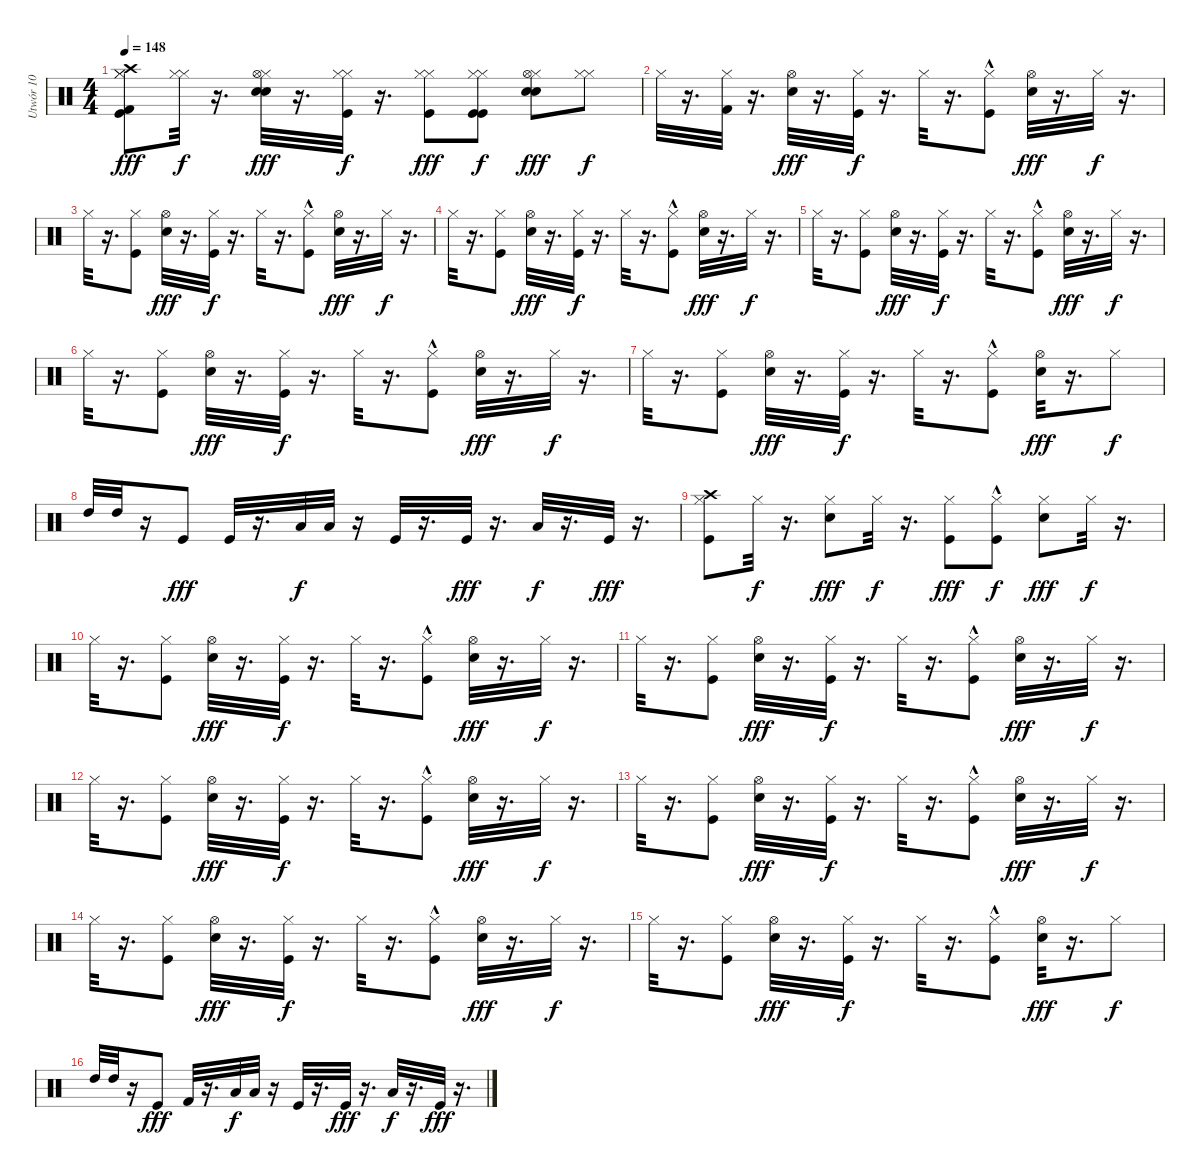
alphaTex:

\track ("Utwór 10" "Utwór 10") {instrument percussion}
\staff {score}
\articulation defaults
\ts (4 4)
\tempo 148
\clef neutral
\ks c
("Crash high (hit)" "Hi-Hat (closed)" "Kick (hit)" "Hi-Hat (closed)" "Kick (hit) 2").8{dy fff} ("Hi-Hat (closed)" "Hi-Hat (closed)").32{dy f} r.16{d} ("Hi-Hat (closed)" "Electric Snare (hit)" "Hi-Hat (open)" "Electric Snare (hit)").32{dy fff} r.16{d} ("Hi-Hat (closed)" "Hi-Hat (closed)" "Kick (hit)").32{dy f} r.16{d} ("Hi-Hat (closed)" "Hi-Hat (closed)" "Kick (hit)").8{dy fff} ("Hi-Hat (closed)" "Kick (hit)" "Hi-Hat (closed)" "Kick (hit)").8{dy f} ("Hi-Hat (closed)" "Electric Snare (hit)" "Hi-Hat (open)" "Electric Snare (hit)").8{dy fff} ("Hi-Hat (closed)" "Hi-Hat (closed)").8{dy f} |
"Hi-Hat (closed)".32 r.16{d} ("Hi-Hat (closed)" "Kick (hit) 2").32 r.16{d} ("Hi-Hat (open)" "Electric Snare (hit)").32{dy fff} r.16{d} ("Hi-Hat (closed)" "Kick (hit)").32{dy f} r.16{d} "Hi-Hat (closed)".32 r.16{d} ("Hi-Hat (closed)" "Kick (hit)"{hac}).8 ("Hi-Hat (open)" "Electric Snare (hit)").32{dy fff} r.16{d} "Hi-Hat (closed)".32{dy f} r.16{d} |
"Hi-Hat (closed)".32 r.16{d} ("Hi-Hat (closed)" "Kick (hit)").8 ("Hi-Hat (open)" "Electric Snare (hit)").32{dy fff} r.16{d} ("Hi-Hat (closed)" "Kick (hit)").32{dy f} r.16{d} "Hi-Hat (closed)".32 r.16{d} ("Hi-Hat (closed)" "Kick (hit)"{hac}).8 ("Hi-Hat (open)" "Electric Snare (hit)").32{dy fff} r.16{d} "Hi-Hat (closed)".32{dy f} r.16{d} |
"Hi-Hat (closed)".32 r.16{d} ("Hi-Hat (closed)" "Kick (hit)").8 ("Hi-Hat (open)" "Electric Snare (hit)").32{dy fff} r.16{d} ("Hi-Hat (closed)" "Kick (hit)").32{dy f} r.16{d} "Hi-Hat (closed)".32 r.16{d} ("Hi-Hat (closed)" "Kick (hit)"{hac}).8 ("Hi-Hat (open)" "Electric Snare (hit)").32{dy fff} r.16{d} "Hi-Hat (closed)".32{dy f} r.16{d} |
"Hi-Hat (closed)".32 r.16{d} ("Hi-Hat (closed)" "Kick (hit)").8 ("Hi-Hat (open)" "Electric Snare (hit)").32{dy fff} r.16{d} ("Hi-Hat (closed)" "Kick (hit)").32{dy f} r.16{d} "Hi-Hat (closed)".32 r.16{d} ("Hi-Hat (closed)" "Kick (hit)"{hac}).8 ("Hi-Hat (open)" "Electric Snare (hit)").32{dy fff} r.16{d} "Hi-Hat (closed)".32{dy f} r.16{d} |
"Hi-Hat (closed)".32 r.16{d} ("Hi-Hat (closed)" "Kick (hit)").8 ("Hi-Hat (open)" "Electric Snare (hit)").32{dy fff} r.16{d} ("Hi-Hat (closed)" "Kick (hit)").32{dy f} r.16{d} "Hi-Hat (closed)".32 r.16{d} ("Hi-Hat (closed)" "Kick (hit)"{hac}).8 ("Hi-Hat (open)" "Electric Snare (hit)").32{dy fff} r.16{d} "Hi-Hat (closed)".32{dy f} r.16{d} |
"Hi-Hat (closed)".32 r.16{d} ("Hi-Hat (closed)" "Kick (hit)").8 ("Hi-Hat (open)" "Electric Snare (hit)").32{dy fff} r.16{d} ("Hi-Hat (closed)" "Kick (hit)").32{dy f} r.16{d} "Hi-Hat (closed)".32 r.16{d} ("Hi-Hat (closed)" "Kick (hit)"{hac}).8 ("Hi-Hat (open)" "Electric Snare (hit)").32{dy fff} r.16{d} "Hi-Hat (closed)".8{dy f} |
"High Tom (hit)".32 "High Tom (hit)".32 r.16 "Kick (hit)".8{dy fff} "Kick (hit)".32 r.16{d} "Low Tom (hit)".32{dy f} "Low Tom (hit)".32 r.16 "Kick (hit)".32 r.16{d} "Kick (hit)".32{dy fff} r.16{d} "Low Floor Tom (hit)".32{dy f} r.16{d} "Kick (hit)".32{dy fff} r.16{d} |
("Crash high (hit)" "Hi-Hat (closed)" "Kick (hit)").8 "Hi-Hat (closed)".32{dy f} r.16{d} ("Hi-Hat (closed)" "Electric Snare (hit)").8{dy fff} "Hi-Hat (closed)".32{dy f} r.16{d} ("Hi-Hat (closed)" "Kick (hit)").8{dy fff} ("Hi-Hat (closed)" "Kick (hit)"{hac}).8{dy f} ("Hi-Hat (closed)" "Electric Snare (hit)").8{dy fff} "Hi-Hat (closed)".32{dy f} r.16{d} |
"Hi-Hat (closed)".32 r.16{d} ("Hi-Hat (closed)" "Kick (hit)").8 ("Hi-Hat (open)" "Electric Snare (hit)").32{dy fff} r.16{d} ("Hi-Hat (closed)" "Kick (hit)").32{dy f} r.16{d} "Hi-Hat (closed)".32 r.16{d} ("Hi-Hat (closed)" "Kick (hit)"{hac}).8 ("Hi-Hat (open)" "Electric Snare (hit)").32{dy fff} r.16{d} "Hi-Hat (closed)".32{dy f} r.16{d} |
"Hi-Hat (closed)".32 r.16{d} ("Hi-Hat (closed)" "Kick (hit)").8 ("Hi-Hat (open)" "Electric Snare (hit)").32{dy fff} r.16{d} ("Hi-Hat (closed)" "Kick (hit)").32{dy f} r.16{d} "Hi-Hat (closed)".32 r.16{d} ("Hi-Hat (closed)" "Kick (hit)"{hac}).8 ("Hi-Hat (open)" "Electric Snare (hit)").32{dy fff} r.16{d} "Hi-Hat (closed)".32{dy f} r.16{d} |
"Hi-Hat (closed)".32 r.16{d} ("Hi-Hat (closed)" "Kick (hit)").8 ("Hi-Hat (open)" "Electric Snare (hit)").32{dy fff} r.16{d} ("Hi-Hat (closed)" "Kick (hit)").32{dy f} r.16{d} "Hi-Hat (closed)".32 r.16{d} ("Hi-Hat (closed)" "Kick (hit)"{hac}).8 ("Hi-Hat (open)" "Electric Snare (hit)").32{dy fff} r.16{d} "Hi-Hat (closed)".32{dy f} r.16{d} |
"Hi-Hat (closed)".32 r.16{d} ("Hi-Hat (closed)" "Kick (hit)").8 ("Hi-Hat (open)" "Electric Snare (hit)").32{dy fff} r.16{d} ("Hi-Hat (closed)" "Kick (hit)").32{dy f} r.16{d} "Hi-Hat (closed)".32 r.16{d} ("Hi-Hat (closed)" "Kick (hit)"{hac}).8 ("Hi-Hat (open)" "Electric Snare (hit)").32{dy fff} r.16{d} "Hi-Hat (closed)".32{dy f} r.16{d} |
"Hi-Hat (closed)".32 r.16{d} ("Hi-Hat (closed)" "Kick (hit)").8 ("Hi-Hat (open)" "Electric Snare (hit)").32{dy fff} r.16{d} ("Hi-Hat (closed)" "Kick (hit)").32{dy f} r.16{d} "Hi-Hat (closed)".32 r.16{d} ("Hi-Hat (closed)" "Kick (hit)"{hac}).8 ("Hi-Hat (open)" "Electric Snare (hit)").32{dy fff} r.16{d} "Hi-Hat (closed)".32{dy f} r.16{d} |
"Hi-Hat (closed)".32 r.16{d} ("Hi-Hat (closed)" "Kick (hit)").8 ("Hi-Hat (open)" "Electric Snare (hit)").32{dy fff} r.16{d} ("Hi-Hat (closed)" "Kick (hit)").32{dy f} r.16{d} "Hi-Hat (closed)".32 r.16{d} ("Hi-Hat (closed)" "Kick (hit)"{hac}).8 ("Hi-Hat (open)" "Electric Snare (hit)").32{dy fff} r.16{d} "Hi-Hat (closed)".8{dy f} |
"High Tom (hit)".32 "High Tom (hit)".32 r.16 "Kick (hit)".8{dy fff} "Kick (hit) 2".32 r.16{d} "Low Tom (hit)".32{dy f} "Low Tom (hit)".32 r.16 "Kick (hit)".32 r.16{d} "Kick (hit)".32{dy fff} r.16{d} "Low Floor Tom (hit)".32{dy f} r.16{d} "Kick (hit)".32{dy fff} r.16{d}
